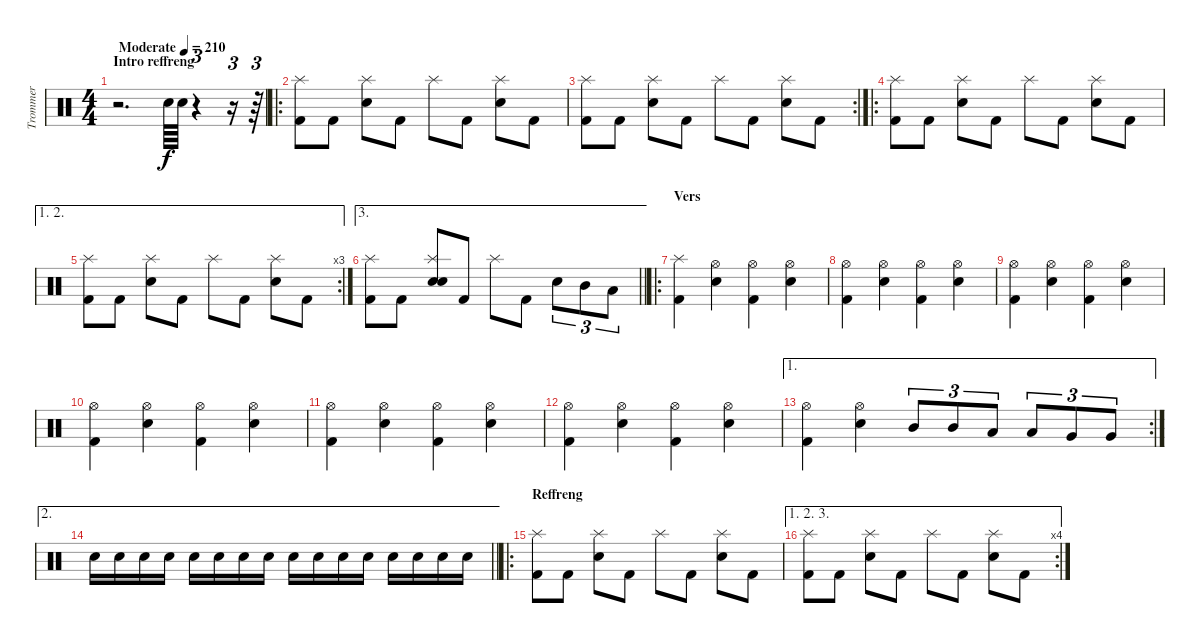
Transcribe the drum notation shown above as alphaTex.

\track ("Trommer" "Trommer") {instrument percussion}
\staff {score}
\articulation defaults
\ts (4 4)
\section ("" "Intro reffreng")
\tempo (210 "Moderate")
\clef neutral
\ks c
r.2{d dy f} "Snare (hit) 2".64 "Snare (hit) 2".64 r.4{tu (3 2)} r.16{tu (3 2)} r.64{tu (3 2)} |
\ro
("Splash (hit)" "Kick (hit) 2").8 "Kick (hit) 2".8 ("Splash (hit)" "Snare (hit) 2").8 "Kick (hit) 2".8 "Splash (hit)".8 "Kick (hit) 2".8 ("Splash (hit)" "Snare (hit) 2").8 "Kick (hit) 2".8 |
\rc 2
("Splash (hit)" "Kick (hit) 2").8 "Kick (hit) 2".8 ("Splash (hit)" "Snare (hit) 2").8 "Kick (hit) 2".8 "Splash (hit)".8 "Kick (hit) 2".8 ("Splash (hit)" "Snare (hit) 2").8 "Kick (hit) 2".8 |
\ro
("Splash (hit)" "Kick (hit) 2").8 "Kick (hit) 2".8 ("Splash (hit)" "Snare (hit) 2").8 "Kick (hit) 2".8 "Splash (hit)".8 "Kick (hit) 2".8 ("Splash (hit)" "Snare (hit) 2").8 "Kick (hit) 2".8 |
\ae (1 2)
\rc 3
("Splash (hit)" "Kick (hit) 2").8 "Kick (hit) 2".8 ("Splash (hit)" "Snare (hit) 2").8 "Kick (hit) 2".8 "Splash (hit)".8 "Kick (hit) 2".8 ("Splash (hit)" "Snare (hit) 2").8 "Kick (hit) 2".8 |
\ae 3
\barLineRight lightlight
("Splash (hit)" "Kick (hit) 2").8 "Kick (hit) 2".8 ("Splash (hit)" "Electric Snare (hit)" "Snare (hit) 2").8 "Kick (hit) 2".8 "Splash (hit)".8 "Kick (hit) 2".8 "Snare (hit) 2".8{tu (3 2)} "Mid Tom (hit)".8{tu (3 2)} "Low Tom (hit)".8{tu (3 2)} |
\ro
\section ("" "Vers ")
("Splash (hit)" "Kick (hit) 2").4 ("Hi-Hat (open)" "Snare (hit) 2").4 ("Hi-Hat (open)" "Kick (hit) 2").4 ("Hi-Hat (open)" "Snare (hit) 2").4 |
("Hi-Hat (open)" "Kick (hit) 2").4 ("Hi-Hat (open)" "Snare (hit) 2").4 ("Hi-Hat (open)" "Kick (hit) 2").4 ("Hi-Hat (open)" "Snare (hit) 2").4 |
("Hi-Hat (open)" "Kick (hit) 2").4 ("Hi-Hat (open)" "Snare (hit) 2").4 ("Hi-Hat (open)" "Kick (hit) 2").4 ("Hi-Hat (open)" "Snare (hit) 2").4 |
("Hi-Hat (open)" "Kick (hit) 2").4 ("Hi-Hat (open)" "Snare (hit) 2").4 ("Hi-Hat (open)" "Kick (hit) 2").4 ("Hi-Hat (open)" "Snare (hit) 2").4 |
("Hi-Hat (open)" "Kick (hit) 2").4 ("Hi-Hat (open)" "Snare (hit) 2").4 ("Hi-Hat (open)" "Kick (hit) 2").4 ("Hi-Hat (open)" "Snare (hit) 2").4 |
("Hi-Hat (open)" "Kick (hit) 2").4 ("Hi-Hat (open)" "Snare (hit) 2").4 ("Hi-Hat (open)" "Kick (hit) 2").4 ("Hi-Hat (open)" "Snare (hit) 2").4 |
\ae 1
\rc 2
("Hi-Hat (open)" "Kick (hit) 2").4 ("Hi-Hat (open)" "Snare (hit) 2").4 "Mid Tom (hit)".8{tu (3 2)} "Mid Tom (hit)".8{tu (3 2)} "Low Tom (hit)".8{tu (3 2)} "Low Tom (hit)".8{tu (3 2)} "Very Low Tom (hit)".8{tu (3 2)} "Very Low Tom (hit)".8{tu (3 2)} |
\ae 2
\barLineRight lightlight "Snare (hit) 2".16 "Snare (hit) 2".16 "Snare (hit) 2".16 "Snare (hit) 2".16 "Snare (hit) 2".16 "Snare (hit) 2".16 "Snare (hit) 2".16 "Snare (hit) 2".16 "Snare (hit) 2".16 "Snare (hit) 2".16 "Snare (hit) 2".16 "Snare (hit) 2".16 "Snare (hit) 2".16 "Snare (hit) 2".16 "Snare (hit) 2".16 "Snare (hit) 2".16
|
\ro
\section ("" "Reffreng")
("Splash (hit)" "Kick (hit) 2").8 "Kick (hit) 2".8 ("Splash (hit)" "Snare (hit) 2").8 "Kick (hit) 2".8 "Splash (hit)".8 "Kick (hit) 2".8 ("Splash (hit)" "Snare (hit) 2").8 "Kick (hit) 2".8 |
\ae (1 2 3)
\rc 4
("Splash (hit)" "Kick (hit) 2").8 "Kick (hit) 2".8 ("Splash (hit)" "Snare (hit) 2").8 "Kick (hit) 2".8 "Splash (hit)".8 "Kick (hit) 2".8 ("Splash (hit)" "Snare (hit) 2").8 "Kick (hit) 2".8
